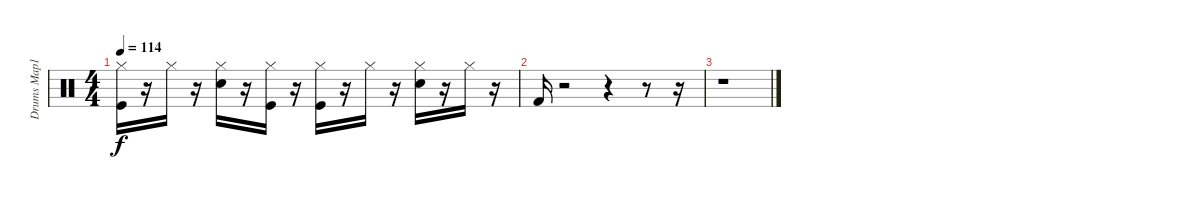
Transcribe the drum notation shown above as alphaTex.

\track ("Drums Map1" "Drums Map1") {instrument percussion}
\staff {score}
\articulation defaults
\ts (4 4)
\tempo 114
\clef neutral
\ks c
("Kick (hit)" "Hi-Hat (closed)").16{dy f} r.16 "Hi-Hat (closed)".16 r.16 ("Snare (hit) 2" "Hi-Hat (closed)").16 r.16 ("Kick (hit)" "Hi-Hat (closed)").16 r.16 ("Kick (hit)" "Hi-Hat (closed)").16 r.16 "Hi-Hat (closed)".16 r.16 ("Snare (hit) 2" "Hi-Hat (closed)").16 r.16 "Hi-Hat (closed)".16 r.16 |
"Kick (hit) 2".16 r.2 r.4 r.8 r.16 |
r.1
